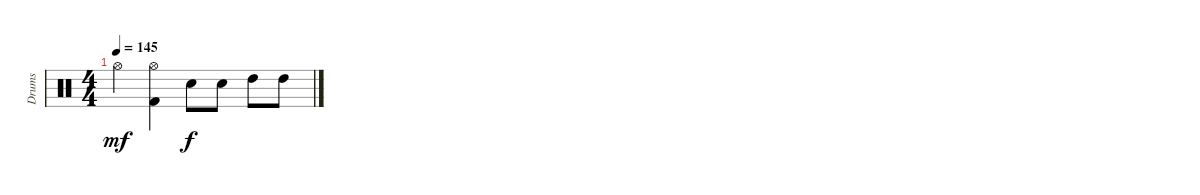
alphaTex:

\track ("Drums" "Drums") {instrument percussion}
\staff {score}
\articulation defaults
\ts (4 4)
\tempo 145
\clef neutral
\ks c "Hi-Hat (open)".4{dy mf}
("Hi-Hat (open)" "Kick (hit) 2").4 "Electric Snare (hit)".8{dy f} "Electric Snare (hit)".8 "High Tom (hit)".8 "High Tom (hit)".8
